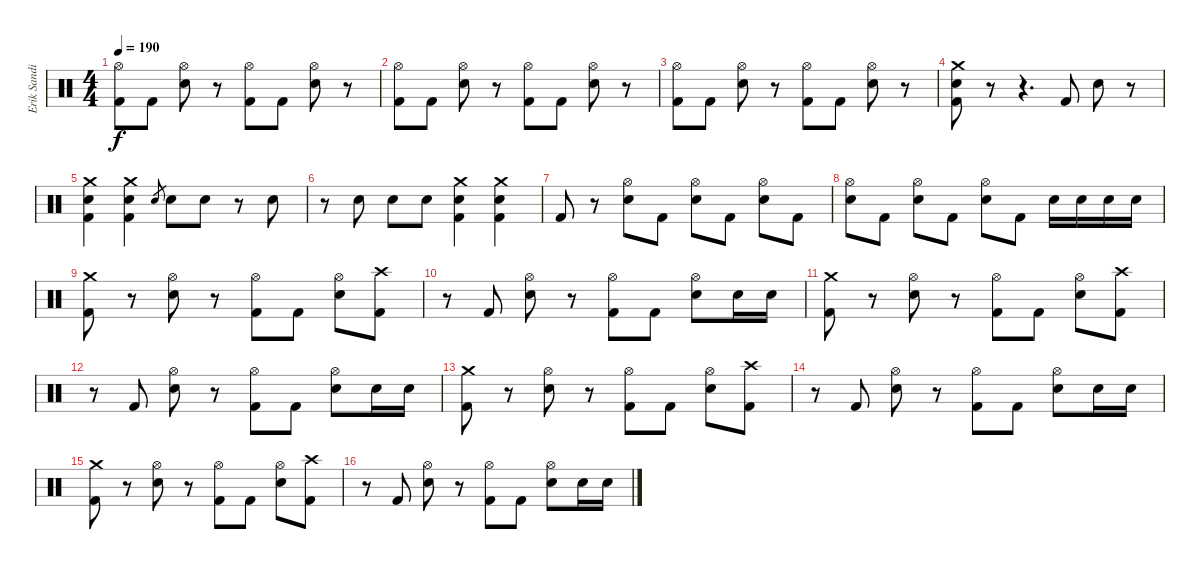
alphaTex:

\track ("Erik Sandin" "Erik Sandi") {instrument percussion}
\staff {score}
\articulation defaults
\ts (4 4)
\tempo 190
\clef neutral
\ks c
("Hi-Hat (open)" "Kick (hit) 2").8{dy f} "Kick (hit) 2".8 ("Hi-Hat (open)" "Snare (hit) 2").8 r.8 ("Hi-Hat (open)" "Kick (hit) 2").8 "Kick (hit) 2".8 ("Hi-Hat (open)" "Snare (hit) 2").8 r.8 |
("Hi-Hat (open)" "Kick (hit) 2").8 "Kick (hit) 2".8 ("Hi-Hat (open)" "Snare (hit) 2").8 r.8 ("Hi-Hat (open)" "Kick (hit) 2").8 "Kick (hit) 2".8 ("Hi-Hat (open)" "Snare (hit) 2").8 r.8 |
("Hi-Hat (open)" "Kick (hit) 2").8 "Kick (hit) 2".8 ("Hi-Hat (open)" "Snare (hit) 2").8 r.8 ("Hi-Hat (open)" "Kick (hit) 2").8 "Kick (hit) 2".8 ("Hi-Hat (open)" "Snare (hit) 2").8 r.8 |
("Crash medium (hit)" "Snare (hit) 2" "Kick (hit) 2").8 r.8 r.4{d} "Kick (hit) 2".8 "Snare (hit) 2".8 r.8 |
("Crash medium (hit)" "Snare (hit) 2" "Kick (hit) 2").4 ("Crash medium (hit)" "Snare (hit) 2" "Kick (hit) 2").4 "Snare (hit) 2".8{gr} "Snare (hit) 2".8 "Snare (hit) 2".8 r.8 "Snare (hit) 2".8 |
r.8 "Snare (hit) 2".8 "Snare (hit) 2".8 "Snare (hit) 2".8 ("Crash medium (hit)" "Snare (hit) 2" "Kick (hit) 2").4 ("Crash medium (hit)" "Snare (hit) 2" "Kick (hit) 2").4 |
"Kick (hit) 2".8 r.8 ("Hi-Hat (open)" "Snare (hit) 2").8 "Kick (hit) 2".8 ("Hi-Hat (open)" "Snare (hit) 2").8 "Kick (hit) 2".8 ("Hi-Hat (open)" "Snare (hit) 2").8 "Kick (hit) 2".8 |
("Hi-Hat (open)" "Snare (hit) 2").8 "Kick (hit) 2".8 ("Hi-Hat (open)" "Snare (hit) 2").8 "Kick (hit) 2".8 ("Hi-Hat (open)" "Snare (hit) 2").8 "Kick (hit) 2".8 "Snare (hit) 2".16 "Snare (hit) 2".16 "Snare (hit) 2".16 "Snare (hit) 2".16 |
("Crash medium (hit)" "Kick (hit) 2").8 r.8 ("Hi-Hat (open)" "Snare (hit) 2").8 r.8 ("Hi-Hat (open)" "Kick (hit) 2").8 "Kick (hit) 2".8 ("Hi-Hat (open)" "Snare (hit) 2").8 ("Crash high (hit)" "Kick (hit) 2").8 |
r.8 "Kick (hit) 2".8 ("Hi-Hat (open)" "Snare (hit) 2").8 r.8 ("Hi-Hat (open)" "Kick (hit) 2").8 "Kick (hit) 2".8 ("Hi-Hat (open)" "Snare (hit) 2").8 "Snare (hit) 2".16 "Snare (hit) 2".16 |
("Crash medium (hit)" "Kick (hit) 2").8 r.8 ("Hi-Hat (open)" "Snare (hit) 2").8 r.8 ("Hi-Hat (open)" "Kick (hit) 2").8 "Kick (hit) 2".8 ("Hi-Hat (open)" "Snare (hit) 2").8 ("Crash high (hit)" "Kick (hit) 2").8 |
r.8 "Kick (hit) 2".8 ("Hi-Hat (open)" "Snare (hit) 2").8 r.8 ("Hi-Hat (open)" "Kick (hit) 2").8 "Kick (hit) 2".8 ("Hi-Hat (open)" "Snare (hit) 2").8 "Snare (hit) 2".16 "Snare (hit) 2".16 |
("Crash medium (hit)" "Kick (hit) 2").8 r.8 ("Hi-Hat (open)" "Snare (hit) 2").8 r.8 ("Hi-Hat (open)" "Kick (hit) 2").8 "Kick (hit) 2".8 ("Hi-Hat (open)" "Snare (hit) 2").8 ("Crash high (hit)" "Kick (hit) 2").8 |
r.8 "Kick (hit) 2".8 ("Hi-Hat (open)" "Snare (hit) 2").8 r.8 ("Hi-Hat (open)" "Kick (hit) 2").8 "Kick (hit) 2".8 ("Hi-Hat (open)" "Snare (hit) 2").8 "Snare (hit) 2".16 "Snare (hit) 2".16 |
("Crash medium (hit)" "Kick (hit) 2").8 r.8 ("Hi-Hat (open)" "Snare (hit) 2").8 r.8 ("Hi-Hat (open)" "Kick (hit) 2").8 "Kick (hit) 2".8 ("Hi-Hat (open)" "Snare (hit) 2").8 ("Crash high (hit)" "Kick (hit) 2").8 |
r.8 "Kick (hit) 2".8 ("Hi-Hat (open)" "Snare (hit) 2").8 r.8 ("Hi-Hat (open)" "Kick (hit) 2").8 "Kick (hit) 2".8 ("Hi-Hat (open)" "Snare (hit) 2").8 "Snare (hit) 2".16 "Snare (hit) 2".16
